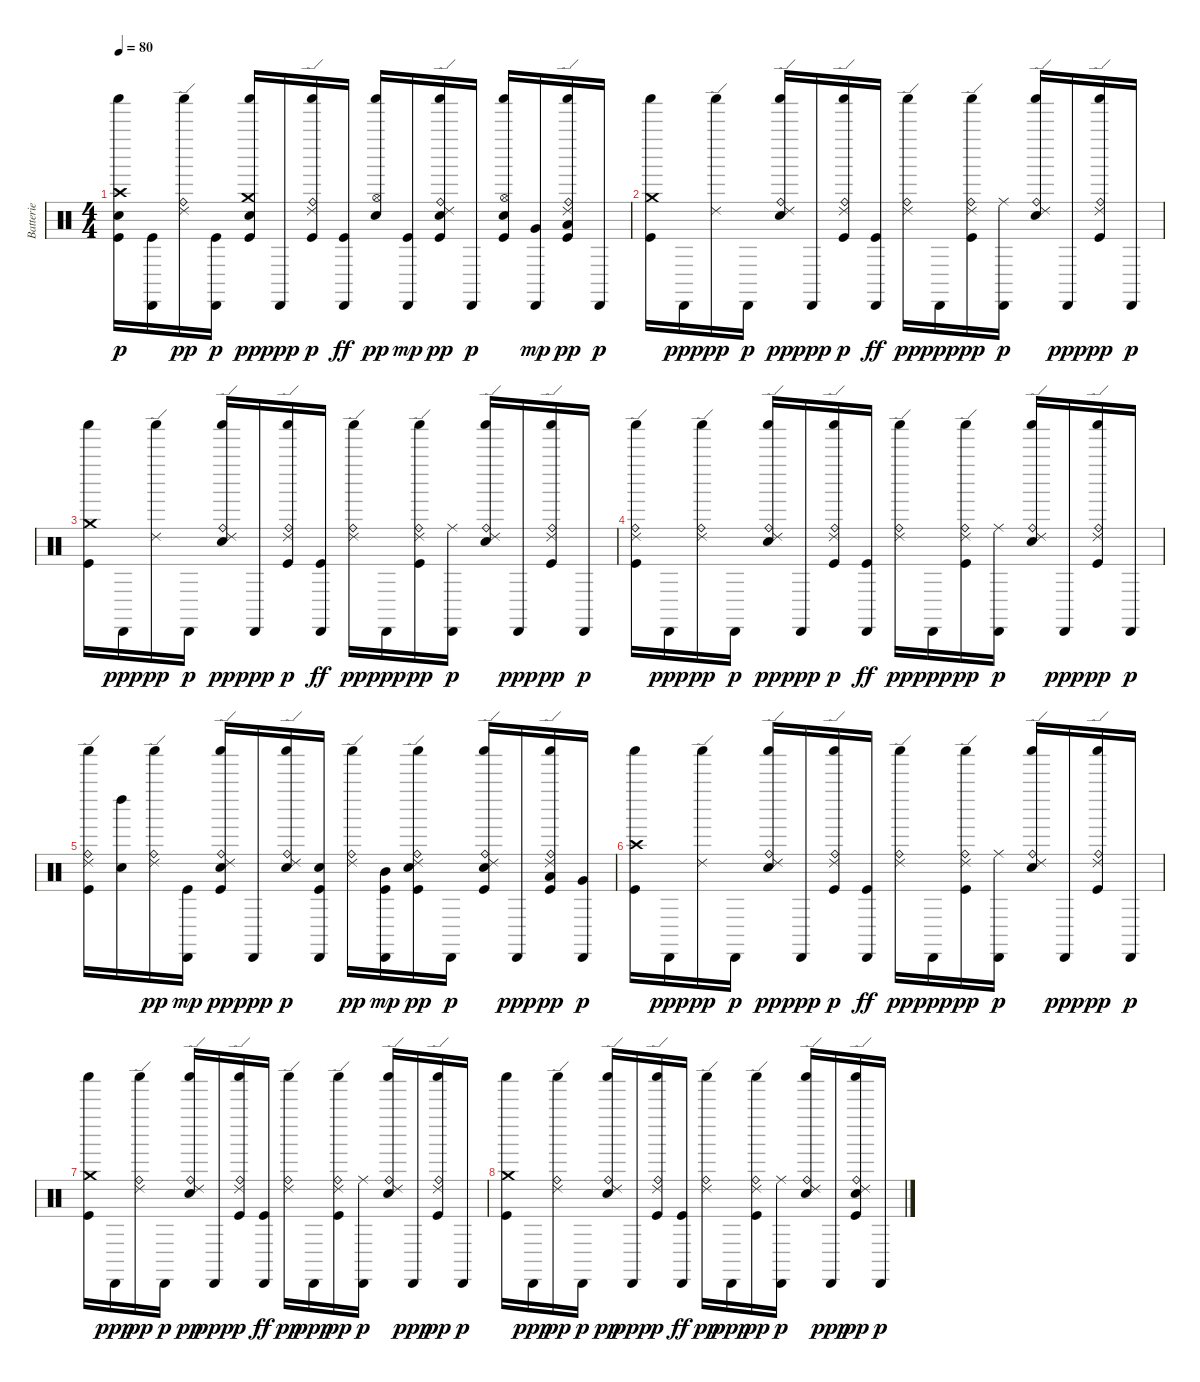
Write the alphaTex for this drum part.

\track ("Batterie" "Batterie") {instrument percussion}
\staff {score}
\articulation defaults
\ts (4 4)
\tempo 80
\clef neutral
\ks c
("Kick (hit)" "Snare (hit) 2" "Crash high (hit)" "Shaker (hit)").16{dy p} ("Cabasa (hit)" "Kick (hit)").16 ("Ride (edge) 2" "Ride (bell)" "Shaker (hit)").16{dy pp} ("Cabasa (hit)" "Kick (hit)").16{dy p} ("Kick (hit)" "Snare (hit) 2" "Crash medium (hit)" "Shaker (hit)").16{dy pp} "Cabasa (hit)".16{dy ppp} ("Kick (hit)" "Ride (edge) 2" "Ride (bell)" "Shaker (hit)").16{dy p} ("Cabasa (hit)" "Kick (hit)").16{dy ff} ("Snare (hit) 2" "Hi-Hat (open)" "Shaker (hit)").16{dy pp} ("Cabasa (hit)" "Kick (hit)").16{dy mp} ("Kick (hit)" "Snare (hit) 2" "Ride (edge) 2" "Ride (bell)" "Shaker (hit)").16{dy pp} "Cabasa (hit)".16{dy p} ("Kick (hit)" "Snare (hit) 2" "Hi-Hat (open)" "Shaker (hit)").16 ("Cabasa (hit)" "Very Low Tom (hit)").16{dy mp} ("Kick (hit)" "Ride (edge) 2" "Ride (bell)" "Low Floor Tom (hit)" "Shaker (hit)").16{dy pp} "Cabasa (hit)".16{dy p} |
("Kick (hit)" "Crash medium (hit)" "Shaker (hit)").16 "Cabasa (hit)".16{dy ppp} ("Ride (edge) 2" "Shaker (hit)").16{dy pp} "Cabasa (hit)".16{dy p} ("Snare (hit) 2" "Ride (edge) 2" "Ride (bell)" "Shaker (hit)").16{dy pp} "Cabasa (hit)".16{dy ppp} ("Kick (hit)" "Ride (edge) 2" "Ride (bell)" "Shaker (hit)").16{dy p} ("Cabasa (hit)" "Kick (hit)").16{dy ff} ("Ride (edge) 2" "Ride (bell)" "Shaker (hit)").16{dy pp} "Cabasa (hit)".16{dy ppp} ("Kick (hit)" "Ride (edge) 2" "Ride (bell)" "Shaker (hit)").16{dy pp} ("Cabasa (hit)" "Ride (middle)").16{dy p} ("Snare (hit) 2" "Ride (edge) 2" "Ride (bell)" "Shaker (hit)").16 "Cabasa (hit)".16{dy ppp} ("Kick (hit)" "Ride (edge) 2" "Ride (bell)" "Shaker (hit)").16{dy pp} "Cabasa (hit)".16{dy p} |
("Kick (hit)" "Crash medium (hit)" "Shaker (hit)").16 "Cabasa (hit)".16{dy ppp} ("Ride (edge) 2" "Shaker (hit)").16{dy pp} "Cabasa (hit)".16{dy p} ("Snare (hit) 2" "Ride (edge) 2" "Ride (bell)" "Shaker (hit)").16{dy pp} "Cabasa (hit)".16{dy ppp} ("Kick (hit)" "Ride (edge) 2" "Ride (bell)" "Shaker (hit)").16{dy p} ("Cabasa (hit)" "Kick (hit)").16{dy ff} ("Ride (edge) 2" "Ride (bell)" "Shaker (hit)").16{dy pp} "Cabasa (hit)".16{dy ppp} ("Kick (hit)" "Ride (edge) 2" "Ride (bell)" "Shaker (hit)").16{dy pp} ("Cabasa (hit)" "Ride (middle)").16{dy p} ("Snare (hit) 2" "Ride (edge) 2" "Ride (bell)" "Shaker (hit)").16 "Cabasa (hit)".16{dy ppp} ("Kick (hit)" "Ride (edge) 2" "Ride (bell)" "Shaker (hit)").16{dy pp} "Cabasa (hit)".16{dy p} |
("Kick (hit)" "Ride (edge) 2" "Ride (bell)" "Shaker (hit)").16 "Cabasa (hit)".16{dy ppp} ("Ride (edge) 2" "Ride (bell)" "Shaker (hit)").16{dy pp} "Cabasa (hit)".16{dy p} ("Snare (hit) 2" "Ride (edge) 2" "Ride (bell)" "Shaker (hit)").16{dy pp} "Cabasa (hit)".16{dy ppp} ("Kick (hit)" "Ride (edge) 2" "Ride (bell)" "Shaker (hit)").16{dy p} ("Cabasa (hit)" "Kick (hit)").16{dy ff} ("Ride (edge) 2" "Ride (bell)" "Shaker (hit)").16{dy pp} "Cabasa (hit)".16{dy ppp} ("Kick (hit)" "Ride (edge) 2" "Ride (bell)" "Shaker (hit)").16{dy pp} ("Cabasa (hit)" "Ride (middle)").16{dy p} ("Snare (hit) 2" "Ride (edge) 2" "Ride (bell)" "Shaker (hit)").16 "Cabasa (hit)".16{dy ppp} ("Kick (hit)" "Ride (edge) 2" "Ride (bell)" "Shaker (hit)").16{dy pp} "Cabasa (hit)".16{dy p} |
("Kick (hit)" "Ride (edge) 2" "Ride (bell)" "Shaker (hit)").16 ("Snare (hit) 2" "Left Maraca (hit)").16 ("Ride (edge) 2" "Ride (bell)" "Shaker (hit)").16{dy pp} ("Cabasa (hit)" "Kick (hit)").16{dy mp} ("Kick (hit)" "Snare (hit) 2" "Ride (edge) 2" "Ride (bell)" "Shaker (hit)").16{dy pp} "Cabasa (hit)".16{dy ppp} ("Snare (hit) 2" "Ride (edge) 2" "Ride (bell)" "Shaker (hit)").16{dy p} ("Cabasa (hit)" "Kick (hit)" "Snare (hit) 2").16 ("Ride (edge) 2" "Ride (bell)" "Shaker (hit)").16{dy pp} ("Cabasa (hit)" "Kick (hit)" "Mid Tom (hit)").16{dy mp} ("Kick (hit)" "Snare (hit) 2" "Ride (edge) 2" "Ride (bell)" "Shaker (hit)").16{dy pp} "Cabasa (hit)".16{dy p} ("Kick (hit)" "Snare (hit) 2" "Ride (edge) 2" "Ride (bell)" "Shaker (hit)").16 "Cabasa (hit)".16{dy ppp} ("Kick (hit)" "Ride (edge) 2" "Ride (bell)" "Low Tom (hit)" "Shaker (hit)").16{dy pp} ("Cabasa (hit)" "Very Low Tom (hit)").16{dy p} |
("Kick (hit)" "Crash high (hit)" "Shaker (hit)").16 "Cabasa (hit)".16{dy ppp} ("Ride (edge) 2" "Shaker (hit)").16{dy pp} "Cabasa (hit)".16{dy p} ("Snare (hit) 2" "Ride (edge) 2" "Ride (bell)" "Shaker (hit)").16{dy pp} "Cabasa (hit)".16{dy ppp} ("Kick (hit)" "Ride (edge) 2" "Ride (bell)" "Shaker (hit)").16{dy p} ("Cabasa (hit)" "Kick (hit)").16{dy ff} ("Ride (edge) 2" "Ride (bell)" "Shaker (hit)").16{dy pp} "Cabasa (hit)".16{dy ppp} ("Kick (hit)" "Ride (edge) 2" "Ride (bell)" "Shaker (hit)").16{dy pp} ("Cabasa (hit)" "Ride (middle)").16{dy p} ("Snare (hit) 2" "Ride (edge) 2" "Ride (bell)" "Shaker (hit)").16 "Cabasa (hit)".16{dy ppp} ("Kick (hit)" "Ride (edge) 2" "Ride (bell)" "Shaker (hit)").16{dy pp} "Cabasa (hit)".16{dy p} |
("Kick (hit)" "Crash medium (hit)" "Shaker (hit)").16 "Cabasa (hit)".16{dy ppp} ("Ride (edge) 2" "Ride (bell)" "Shaker (hit)").16{dy pp} "Cabasa (hit)".16{dy p} ("Snare (hit) 2" "Ride (edge) 2" "Ride (bell)" "Shaker (hit)").16{dy pp} "Cabasa (hit)".16{dy ppp} ("Kick (hit)" "Ride (edge) 2" "Ride (bell)" "Shaker (hit)").16{dy p} ("Cabasa (hit)" "Kick (hit)").16{dy ff} ("Ride (edge) 2" "Ride (bell)" "Shaker (hit)").16{dy pp} "Cabasa (hit)".16{dy ppp} ("Kick (hit)" "Ride (edge) 2" "Ride (bell)" "Shaker (hit)").16{dy pp} ("Cabasa (hit)" "Ride (middle)").16{dy p} ("Snare (hit) 2" "Ride (edge) 2" "Ride (bell)" "Shaker (hit)").16 "Cabasa (hit)".16{dy ppp} ("Kick (hit)" "Ride (edge) 2" "Ride (bell)" "Shaker (hit)").16{dy pp} "Cabasa (hit)".16{dy p} |
("Kick (hit)" "Crash medium (hit)" "Shaker (hit)").16 "Cabasa (hit)".16{dy ppp} ("Ride (edge) 2" "Ride (bell)" "Shaker (hit)").16{dy pp} "Cabasa (hit)".16{dy p} ("Snare (hit) 2" "Ride (edge) 2" "Ride (bell)" "Shaker (hit)").16{dy pp} "Cabasa (hit)".16{dy ppp} ("Kick (hit)" "Ride (edge) 2" "Ride (bell)" "Shaker (hit)").16{dy p} ("Cabasa (hit)" "Kick (hit)").16{dy ff} ("Ride (edge) 2" "Ride (bell)" "Shaker (hit)").16{dy pp} "Cabasa (hit)".16{dy ppp} ("Kick (hit)" "Ride (edge) 2" "Ride (bell)" "Shaker (hit)").16{dy pp} ("Cabasa (hit)" "Ride (middle)").16{dy p} ("Snare (hit) 2" "Ride (edge) 2" "Ride (bell)" "Shaker (hit)").16 "Cabasa (hit)".16{dy ppp} ("Kick (hit)" "Snare (hit) 2" "Ride (edge) 2" "Ride (bell)" "Shaker (hit)").16{dy pp} "Cabasa (hit)".16{dy p}
